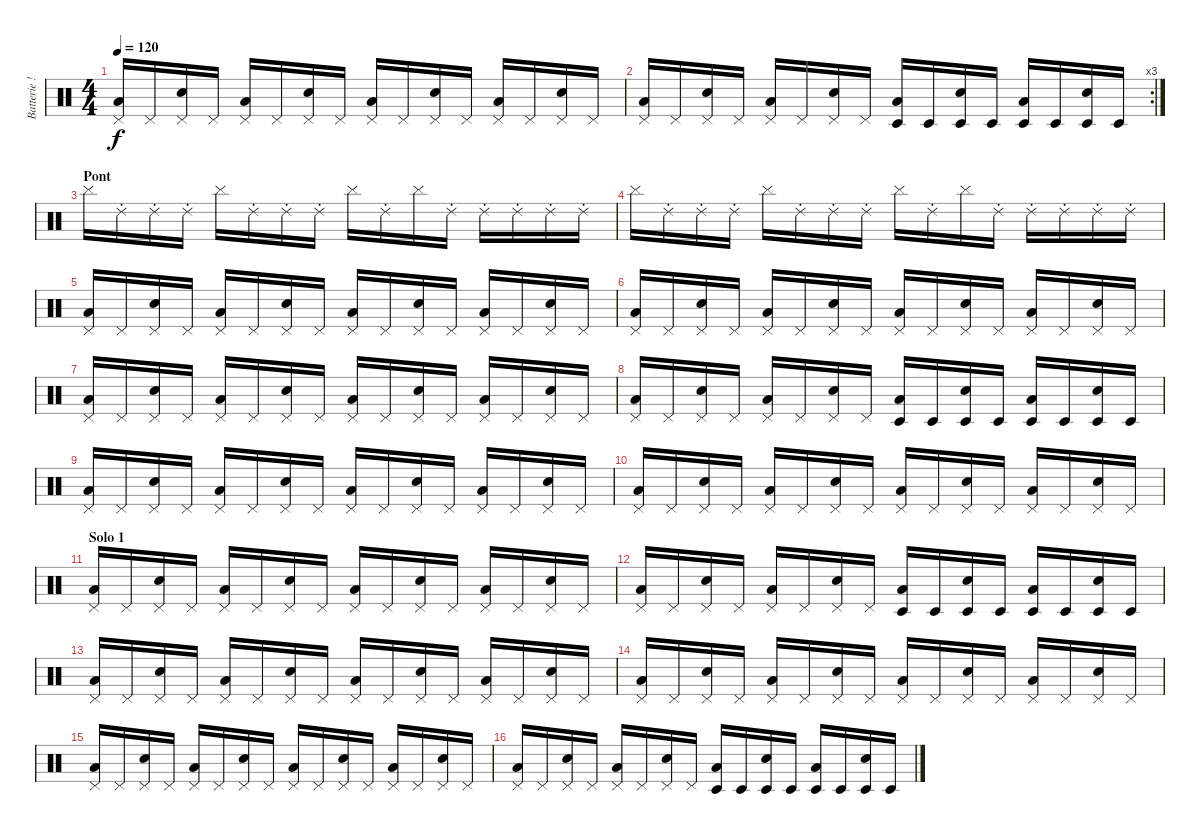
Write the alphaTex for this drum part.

\track ("Batterie !!" "Batterie !") {instrument percussion}
\staff {score}
\articulation defaults
\ts (4 4)
\tempo 120
\clef neutral
\ks c
("Pedal Hi-Hat (hit)" "Low Floor Tom (hit)").16{dy f} "Pedal Hi-Hat (hit)".16 ("Pedal Hi-Hat (hit)" "Electric Snare (hit)").16 "Pedal Hi-Hat (hit)".16 ("Pedal Hi-Hat (hit)" "Low Floor Tom (hit)").16 "Pedal Hi-Hat (hit)".16 ("Pedal Hi-Hat (hit)" "Electric Snare (hit)").16 "Pedal Hi-Hat (hit)".16 ("Pedal Hi-Hat (hit)" "Low Floor Tom (hit)").16 "Pedal Hi-Hat (hit)".16 ("Pedal Hi-Hat (hit)" "Electric Snare (hit)").16 "Pedal Hi-Hat (hit)".16 ("Pedal Hi-Hat (hit)" "Low Floor Tom (hit)").16 "Pedal Hi-Hat (hit)".16 ("Pedal Hi-Hat (hit)" "Electric Snare (hit)").16 "Pedal Hi-Hat (hit)".16 |
\rc 3
("Pedal Hi-Hat (hit)" "Low Floor Tom (hit)").16 "Pedal Hi-Hat (hit)".16 ("Pedal Hi-Hat (hit)" "Electric Snare (hit)").16 "Pedal Hi-Hat (hit)".16 ("Pedal Hi-Hat (hit)" "Low Floor Tom (hit)").16 "Pedal Hi-Hat (hit)".16 ("Pedal Hi-Hat (hit)" "Electric Snare (hit)").16 "Pedal Hi-Hat (hit)".16 ("Timbale low (hit)" "Low Floor Tom (hit)").16 "Timbale low (hit)".16 ("Timbale low (hit)" "Electric Snare (hit)").16 "Timbale low (hit)".16 ("Timbale low (hit)" "Low Floor Tom (hit)").16 "Timbale low (hit)".16 ("Timbale low (hit)" "Electric Snare (hit)").16 "Timbale low (hit)".16 |
\section ("" "Pont")
"Cymbal (hit)".16 "Ride (choke) 2".16 "Ride (choke) 2".16 "Ride (choke) 2".16 "Cymbal (hit)".16 "Ride (choke) 2".16 "Ride (choke) 2".16 "Ride (choke) 2".16 "Cymbal (hit)".16 "Ride (choke) 2".16 "Cymbal (hit)".16 "Ride (choke) 2".16 "Ride (choke) 2".16 "Ride (choke) 2".16 "Ride (choke) 2".16 "Ride (choke) 2".16 |
"Cymbal (hit)".16 "Ride (choke) 2".16 "Ride (choke) 2".16 "Ride (choke) 2".16 "Cymbal (hit)".16 "Ride (choke) 2".16 "Ride (choke) 2".16 "Ride (choke) 2".16 "Cymbal (hit)".16 "Ride (choke) 2".16 "Cymbal (hit)".16 "Ride (choke) 2".16 "Ride (choke) 2".16 "Ride (choke) 2".16 "Ride (choke) 2".16 "Ride (choke) 2".16 |
("Pedal Hi-Hat (hit)" "Low Floor Tom (hit)").16 "Pedal Hi-Hat (hit)".16 ("Pedal Hi-Hat (hit)" "Electric Snare (hit)").16 "Pedal Hi-Hat (hit)".16 ("Pedal Hi-Hat (hit)" "Low Floor Tom (hit)").16 "Pedal Hi-Hat (hit)".16 ("Pedal Hi-Hat (hit)" "Electric Snare (hit)").16 "Pedal Hi-Hat (hit)".16 ("Pedal Hi-Hat (hit)" "Low Floor Tom (hit)").16 "Pedal Hi-Hat (hit)".16 ("Pedal Hi-Hat (hit)" "Electric Snare (hit)").16 "Pedal Hi-Hat (hit)".16 ("Pedal Hi-Hat (hit)" "Low Floor Tom (hit)").16 "Pedal Hi-Hat (hit)".16 ("Pedal Hi-Hat (hit)" "Electric Snare (hit)").16 "Pedal Hi-Hat (hit)".16 |
("Pedal Hi-Hat (hit)" "Low Floor Tom (hit)").16 "Pedal Hi-Hat (hit)".16 ("Pedal Hi-Hat (hit)" "Electric Snare (hit)").16 "Pedal Hi-Hat (hit)".16 ("Pedal Hi-Hat (hit)" "Low Floor Tom (hit)").16 "Pedal Hi-Hat (hit)".16 ("Pedal Hi-Hat (hit)" "Electric Snare (hit)").16 "Pedal Hi-Hat (hit)".16 ("Pedal Hi-Hat (hit)" "Low Floor Tom (hit)").16 "Pedal Hi-Hat (hit)".16 ("Pedal Hi-Hat (hit)" "Electric Snare (hit)").16 "Pedal Hi-Hat (hit)".16 ("Pedal Hi-Hat (hit)" "Low Floor Tom (hit)").16 "Pedal Hi-Hat (hit)".16 ("Pedal Hi-Hat (hit)" "Electric Snare (hit)").16 "Pedal Hi-Hat (hit)".16 |
("Pedal Hi-Hat (hit)" "Low Floor Tom (hit)").16 "Pedal Hi-Hat (hit)".16 ("Pedal Hi-Hat (hit)" "Electric Snare (hit)").16 "Pedal Hi-Hat (hit)".16 ("Pedal Hi-Hat (hit)" "Low Floor Tom (hit)").16 "Pedal Hi-Hat (hit)".16 ("Pedal Hi-Hat (hit)" "Electric Snare (hit)").16 "Pedal Hi-Hat (hit)".16 ("Pedal Hi-Hat (hit)" "Low Floor Tom (hit)").16 "Pedal Hi-Hat (hit)".16 ("Pedal Hi-Hat (hit)" "Electric Snare (hit)").16 "Pedal Hi-Hat (hit)".16 ("Pedal Hi-Hat (hit)" "Low Floor Tom (hit)").16 "Pedal Hi-Hat (hit)".16 ("Pedal Hi-Hat (hit)" "Electric Snare (hit)").16 "Pedal Hi-Hat (hit)".16 |
("Pedal Hi-Hat (hit)" "Low Floor Tom (hit)").16 "Pedal Hi-Hat (hit)".16 ("Pedal Hi-Hat (hit)" "Electric Snare (hit)").16 "Pedal Hi-Hat (hit)".16 ("Pedal Hi-Hat (hit)" "Low Floor Tom (hit)").16 "Pedal Hi-Hat (hit)".16 ("Pedal Hi-Hat (hit)" "Electric Snare (hit)").16 "Pedal Hi-Hat (hit)".16 ("Timbale low (hit)" "Low Floor Tom (hit)").16 "Timbale low (hit)".16 ("Timbale low (hit)" "Electric Snare (hit)").16 "Timbale low (hit)".16 ("Timbale low (hit)" "Low Floor Tom (hit)").16 "Timbale low (hit)".16 ("Timbale low (hit)" "Electric Snare (hit)").16 "Timbale low (hit)".16 |
("Pedal Hi-Hat (hit)" "Low Floor Tom (hit)").16 "Pedal Hi-Hat (hit)".16 ("Pedal Hi-Hat (hit)" "Electric Snare (hit)").16 "Pedal Hi-Hat (hit)".16 ("Pedal Hi-Hat (hit)" "Low Floor Tom (hit)").16 "Pedal Hi-Hat (hit)".16 ("Pedal Hi-Hat (hit)" "Electric Snare (hit)").16 "Pedal Hi-Hat (hit)".16 ("Pedal Hi-Hat (hit)" "Low Floor Tom (hit)").16 "Pedal Hi-Hat (hit)".16 ("Pedal Hi-Hat (hit)" "Electric Snare (hit)").16 "Pedal Hi-Hat (hit)".16 ("Pedal Hi-Hat (hit)" "Low Floor Tom (hit)").16 "Pedal Hi-Hat (hit)".16 ("Pedal Hi-Hat (hit)" "Electric Snare (hit)").16 "Pedal Hi-Hat (hit)".16 |
("Pedal Hi-Hat (hit)" "Low Floor Tom (hit)").16 "Pedal Hi-Hat (hit)".16 ("Pedal Hi-Hat (hit)" "Electric Snare (hit)").16 "Pedal Hi-Hat (hit)".16 ("Pedal Hi-Hat (hit)" "Low Floor Tom (hit)").16 "Pedal Hi-Hat (hit)".16 ("Pedal Hi-Hat (hit)" "Electric Snare (hit)").16 "Pedal Hi-Hat (hit)".16 ("Pedal Hi-Hat (hit)" "Low Floor Tom (hit)").16 "Pedal Hi-Hat (hit)".16 ("Pedal Hi-Hat (hit)" "Electric Snare (hit)").16 "Pedal Hi-Hat (hit)".16 ("Pedal Hi-Hat (hit)" "Low Floor Tom (hit)").16 "Pedal Hi-Hat (hit)".16 ("Pedal Hi-Hat (hit)" "Electric Snare (hit)").16 "Pedal Hi-Hat (hit)".16 |
\section ("" "Solo 1")
("Pedal Hi-Hat (hit)" "Low Floor Tom (hit)").16 "Pedal Hi-Hat (hit)".16 ("Pedal Hi-Hat (hit)" "Electric Snare (hit)").16 "Pedal Hi-Hat (hit)".16 ("Pedal Hi-Hat (hit)" "Low Floor Tom (hit)").16 "Pedal Hi-Hat (hit)".16 ("Pedal Hi-Hat (hit)" "Electric Snare (hit)").16 "Pedal Hi-Hat (hit)".16 ("Pedal Hi-Hat (hit)" "Low Floor Tom (hit)").16 "Pedal Hi-Hat (hit)".16 ("Pedal Hi-Hat (hit)" "Electric Snare (hit)").16 "Pedal Hi-Hat (hit)".16 ("Pedal Hi-Hat (hit)" "Low Floor Tom (hit)").16 "Pedal Hi-Hat (hit)".16 ("Pedal Hi-Hat (hit)" "Electric Snare (hit)").16 "Pedal Hi-Hat (hit)".16 |
("Pedal Hi-Hat (hit)" "Low Floor Tom (hit)").16 "Pedal Hi-Hat (hit)".16 ("Pedal Hi-Hat (hit)" "Electric Snare (hit)").16 "Pedal Hi-Hat (hit)".16 ("Pedal Hi-Hat (hit)" "Low Floor Tom (hit)").16 "Pedal Hi-Hat (hit)".16 ("Pedal Hi-Hat (hit)" "Electric Snare (hit)").16 "Pedal Hi-Hat (hit)".16 ("Timbale low (hit)" "Low Floor Tom (hit)").16 "Timbale low (hit)".16 ("Timbale low (hit)" "Electric Snare (hit)").16 "Timbale low (hit)".16 ("Timbale low (hit)" "Low Floor Tom (hit)").16 "Timbale low (hit)".16 ("Timbale low (hit)" "Electric Snare (hit)").16 "Timbale low (hit)".16 |
("Pedal Hi-Hat (hit)" "Low Floor Tom (hit)").16 "Pedal Hi-Hat (hit)".16 ("Pedal Hi-Hat (hit)" "Electric Snare (hit)").16 "Pedal Hi-Hat (hit)".16 ("Pedal Hi-Hat (hit)" "Low Floor Tom (hit)").16 "Pedal Hi-Hat (hit)".16 ("Pedal Hi-Hat (hit)" "Electric Snare (hit)").16 "Pedal Hi-Hat (hit)".16 ("Pedal Hi-Hat (hit)" "Low Floor Tom (hit)").16 "Pedal Hi-Hat (hit)".16 ("Pedal Hi-Hat (hit)" "Electric Snare (hit)").16 "Pedal Hi-Hat (hit)".16 ("Pedal Hi-Hat (hit)" "Low Floor Tom (hit)").16 "Pedal Hi-Hat (hit)".16 ("Pedal Hi-Hat (hit)" "Electric Snare (hit)").16 "Pedal Hi-Hat (hit)".16 |
("Pedal Hi-Hat (hit)" "Low Floor Tom (hit)").16 "Pedal Hi-Hat (hit)".16 ("Pedal Hi-Hat (hit)" "Electric Snare (hit)").16 "Pedal Hi-Hat (hit)".16 ("Pedal Hi-Hat (hit)" "Low Floor Tom (hit)").16 "Pedal Hi-Hat (hit)".16 ("Pedal Hi-Hat (hit)" "Electric Snare (hit)").16 "Pedal Hi-Hat (hit)".16 ("Pedal Hi-Hat (hit)" "Low Floor Tom (hit)").16 "Pedal Hi-Hat (hit)".16 ("Pedal Hi-Hat (hit)" "Electric Snare (hit)").16 "Pedal Hi-Hat (hit)".16 ("Pedal Hi-Hat (hit)" "Low Floor Tom (hit)").16 "Pedal Hi-Hat (hit)".16 ("Pedal Hi-Hat (hit)" "Electric Snare (hit)").16 "Pedal Hi-Hat (hit)".16 |
("Pedal Hi-Hat (hit)" "Low Floor Tom (hit)").16 "Pedal Hi-Hat (hit)".16 ("Pedal Hi-Hat (hit)" "Electric Snare (hit)").16 "Pedal Hi-Hat (hit)".16 ("Pedal Hi-Hat (hit)" "Low Floor Tom (hit)").16 "Pedal Hi-Hat (hit)".16 ("Pedal Hi-Hat (hit)" "Electric Snare (hit)").16 "Pedal Hi-Hat (hit)".16 ("Pedal Hi-Hat (hit)" "Low Floor Tom (hit)").16 "Pedal Hi-Hat (hit)".16 ("Pedal Hi-Hat (hit)" "Electric Snare (hit)").16 "Pedal Hi-Hat (hit)".16 ("Pedal Hi-Hat (hit)" "Low Floor Tom (hit)").16 "Pedal Hi-Hat (hit)".16 ("Pedal Hi-Hat (hit)" "Electric Snare (hit)").16 "Pedal Hi-Hat (hit)".16 |
("Pedal Hi-Hat (hit)" "Low Floor Tom (hit)").16 "Pedal Hi-Hat (hit)".16 ("Pedal Hi-Hat (hit)" "Electric Snare (hit)").16 "Pedal Hi-Hat (hit)".16 ("Pedal Hi-Hat (hit)" "Low Floor Tom (hit)").16 "Pedal Hi-Hat (hit)".16 ("Pedal Hi-Hat (hit)" "Electric Snare (hit)").16 "Pedal Hi-Hat (hit)".16 ("Timbale low (hit)" "Low Floor Tom (hit)").16 "Timbale low (hit)".16 ("Timbale low (hit)" "Electric Snare (hit)").16 "Timbale low (hit)".16 ("Timbale low (hit)" "Low Floor Tom (hit)").16 "Timbale low (hit)".16 ("Timbale low (hit)" "Electric Snare (hit)").16 "Timbale low (hit)".16
